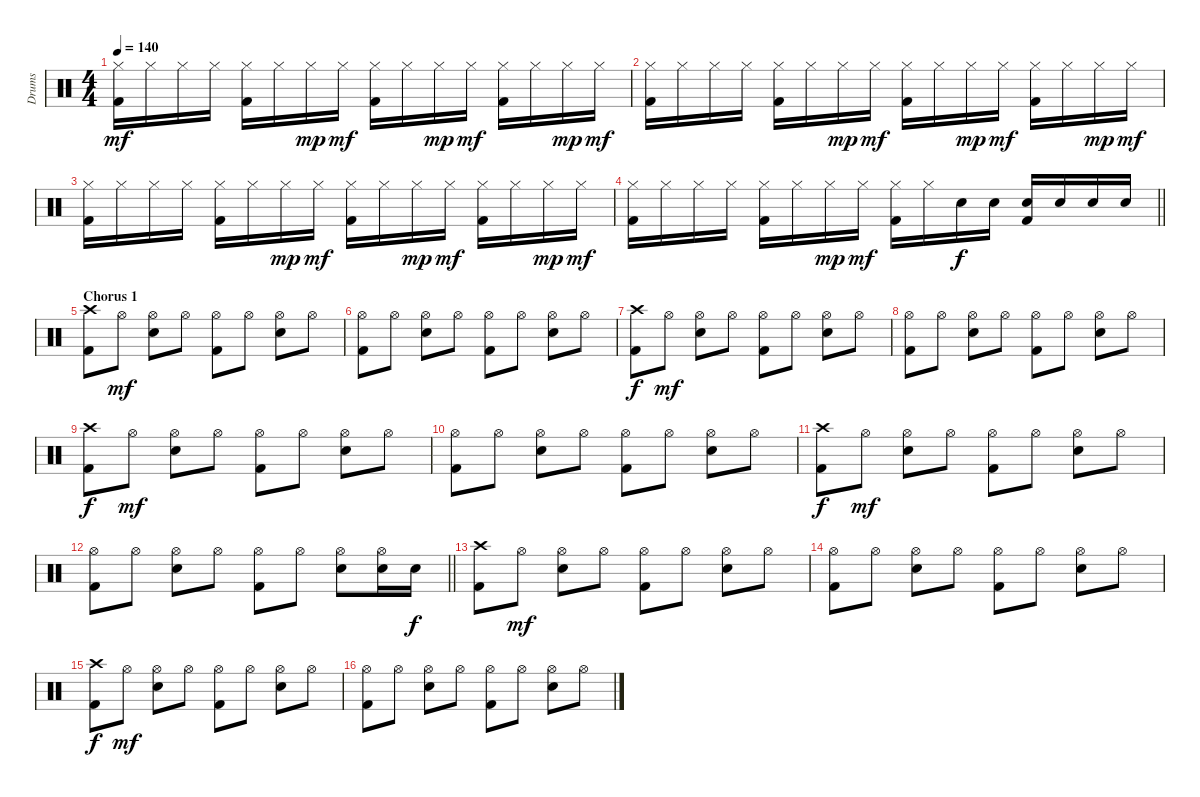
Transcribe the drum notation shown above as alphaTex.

\track ("Drums" "Drums") {instrument percussion}
\staff {score}
\articulation defaults
\ts (4 4)
\tempo 140
\clef neutral
\ks c
("Hi-Hat (closed)" "Kick (hit) 2").16{dy mf} "Hi-Hat (closed)".16 "Hi-Hat (closed)".16 "Hi-Hat (closed)".16 ("Hi-Hat (closed)" "Kick (hit) 2").16 "Hi-Hat (closed)".16 "Hi-Hat (closed)".16{dy mp} "Hi-Hat (closed)".16{dy mf} ("Hi-Hat (closed)" "Kick (hit) 2").16 "Hi-Hat (closed)".16 "Hi-Hat (closed)".16{dy mp} "Hi-Hat (closed)".16{dy mf} ("Hi-Hat (closed)" "Kick (hit) 2").16 "Hi-Hat (closed)".16 "Hi-Hat (closed)".16{dy mp} "Hi-Hat (closed)".16{dy mf} |
("Hi-Hat (closed)" "Kick (hit) 2").16 "Hi-Hat (closed)".16 "Hi-Hat (closed)".16 "Hi-Hat (closed)".16 ("Hi-Hat (closed)" "Kick (hit) 2").16 "Hi-Hat (closed)".16 "Hi-Hat (closed)".16{dy mp} "Hi-Hat (closed)".16{dy mf} ("Hi-Hat (closed)" "Kick (hit) 2").16 "Hi-Hat (closed)".16 "Hi-Hat (closed)".16{dy mp} "Hi-Hat (closed)".16{dy mf} ("Hi-Hat (closed)" "Kick (hit) 2").16 "Hi-Hat (closed)".16 "Hi-Hat (closed)".16{dy mp} "Hi-Hat (closed)".16{dy mf} |
("Hi-Hat (closed)" "Kick (hit) 2").16 "Hi-Hat (closed)".16 "Hi-Hat (closed)".16 "Hi-Hat (closed)".16 ("Hi-Hat (closed)" "Kick (hit) 2").16 "Hi-Hat (closed)".16 "Hi-Hat (closed)".16{dy mp} "Hi-Hat (closed)".16{dy mf} ("Hi-Hat (closed)" "Kick (hit) 2").16 "Hi-Hat (closed)".16 "Hi-Hat (closed)".16{dy mp} "Hi-Hat (closed)".16{dy mf} ("Hi-Hat (closed)" "Kick (hit) 2").16 "Hi-Hat (closed)".16 "Hi-Hat (closed)".16{dy mp} "Hi-Hat (closed)".16{dy mf} |
\barLineRight lightlight
("Hi-Hat (closed)" "Kick (hit) 2").16 "Hi-Hat (closed)".16 "Hi-Hat (closed)".16 "Hi-Hat (closed)".16 ("Hi-Hat (closed)" "Kick (hit) 2").16 "Hi-Hat (closed)".16 "Hi-Hat (closed)".16{dy mp} "Hi-Hat (closed)".16{dy mf} ("Hi-Hat (closed)" "Kick (hit) 2").16 "Hi-Hat (closed)".16 "Snare (hit) 2".16{dy f} "Snare (hit) 2".16 ("Snare (hit) 2" "Kick (hit) 2").16 "Snare (hit) 2".16 "Snare (hit) 2".16 "Snare (hit) 2".16 |
\section ("" "Chorus 1")
("Crash high (hit)" "Kick (hit) 2").8 "Hi-Hat (open)".8{dy mf} ("Hi-Hat (open)" "Snare (hit) 2").8 "Hi-Hat (open)".8 ("Hi-Hat (open)" "Kick (hit) 2").8 "Hi-Hat (open)".8 ("Hi-Hat (open)" "Snare (hit) 2").8 "Hi-Hat (open)".8 |
("Hi-Hat (open)" "Kick (hit) 2").8 "Hi-Hat (open)".8 ("Hi-Hat (open)" "Snare (hit) 2").8 "Hi-Hat (open)".8 ("Hi-Hat (open)" "Kick (hit) 2").8 "Hi-Hat (open)".8 ("Hi-Hat (open)" "Snare (hit) 2").8 "Hi-Hat (open)".8 |
("Crash high (hit)" "Kick (hit) 2").8{dy f} "Hi-Hat (open)".8{dy mf} ("Hi-Hat (open)" "Snare (hit) 2").8 "Hi-Hat (open)".8 ("Hi-Hat (open)" "Kick (hit) 2").8 "Hi-Hat (open)".8 ("Hi-Hat (open)" "Snare (hit) 2").8 "Hi-Hat (open)".8 |
("Hi-Hat (open)" "Kick (hit) 2").8 "Hi-Hat (open)".8 ("Hi-Hat (open)" "Snare (hit) 2").8 "Hi-Hat (open)".8 ("Hi-Hat (open)" "Kick (hit) 2").8 "Hi-Hat (open)".8 ("Hi-Hat (open)" "Snare (hit) 2").8 "Hi-Hat (open)".8 |
("Crash high (hit)" "Kick (hit) 2").8{dy f} "Hi-Hat (open)".8{dy mf} ("Hi-Hat (open)" "Snare (hit) 2").8 "Hi-Hat (open)".8 ("Hi-Hat (open)" "Kick (hit) 2").8 "Hi-Hat (open)".8 ("Hi-Hat (open)" "Snare (hit) 2").8 "Hi-Hat (open)".8 |
("Hi-Hat (open)" "Kick (hit) 2").8 "Hi-Hat (open)".8 ("Hi-Hat (open)" "Snare (hit) 2").8 "Hi-Hat (open)".8 ("Hi-Hat (open)" "Kick (hit) 2").8 "Hi-Hat (open)".8 ("Hi-Hat (open)" "Snare (hit) 2").8 "Hi-Hat (open)".8 |
("Crash high (hit)" "Kick (hit) 2").8{dy f} "Hi-Hat (open)".8{dy mf} ("Hi-Hat (open)" "Snare (hit) 2").8 "Hi-Hat (open)".8 ("Hi-Hat (open)" "Kick (hit) 2").8 "Hi-Hat (open)".8 ("Hi-Hat (open)" "Snare (hit) 2").8 "Hi-Hat (open)".8 |
\barLineRight lightlight
("Hi-Hat (open)" "Kick (hit) 2").8 "Hi-Hat (open)".8 ("Hi-Hat (open)" "Snare (hit) 2").8 "Hi-Hat (open)".8 ("Hi-Hat (open)" "Kick (hit) 2").8 "Hi-Hat (open)".8 ("Hi-Hat (open)" "Snare (hit) 2").8 ("Hi-Hat (open)" "Snare (hit) 2").16 "Snare (hit) 2".16{dy f} |
("Crash high (hit)" "Kick (hit) 2").8 "Hi-Hat (open)".8{dy mf} ("Hi-Hat (open)" "Snare (hit) 2").8 "Hi-Hat (open)".8 ("Hi-Hat (open)" "Kick (hit) 2").8 "Hi-Hat (open)".8 ("Hi-Hat (open)" "Snare (hit) 2").8 "Hi-Hat (open)".8 |
("Hi-Hat (open)" "Kick (hit) 2").8 "Hi-Hat (open)".8 ("Hi-Hat (open)" "Snare (hit) 2").8 "Hi-Hat (open)".8 ("Hi-Hat (open)" "Kick (hit) 2").8 "Hi-Hat (open)".8 ("Hi-Hat (open)" "Snare (hit) 2").8 "Hi-Hat (open)".8 |
("Crash high (hit)" "Kick (hit) 2").8{dy f} "Hi-Hat (open)".8{dy mf} ("Hi-Hat (open)" "Snare (hit) 2").8 "Hi-Hat (open)".8 ("Hi-Hat (open)" "Kick (hit) 2").8 "Hi-Hat (open)".8 ("Hi-Hat (open)" "Snare (hit) 2").8 "Hi-Hat (open)".8 |
("Hi-Hat (open)" "Kick (hit) 2").8 "Hi-Hat (open)".8 ("Hi-Hat (open)" "Snare (hit) 2").8 "Hi-Hat (open)".8 ("Hi-Hat (open)" "Kick (hit) 2").8 "Hi-Hat (open)".8 ("Hi-Hat (open)" "Snare (hit) 2").8 "Hi-Hat (open)".8
